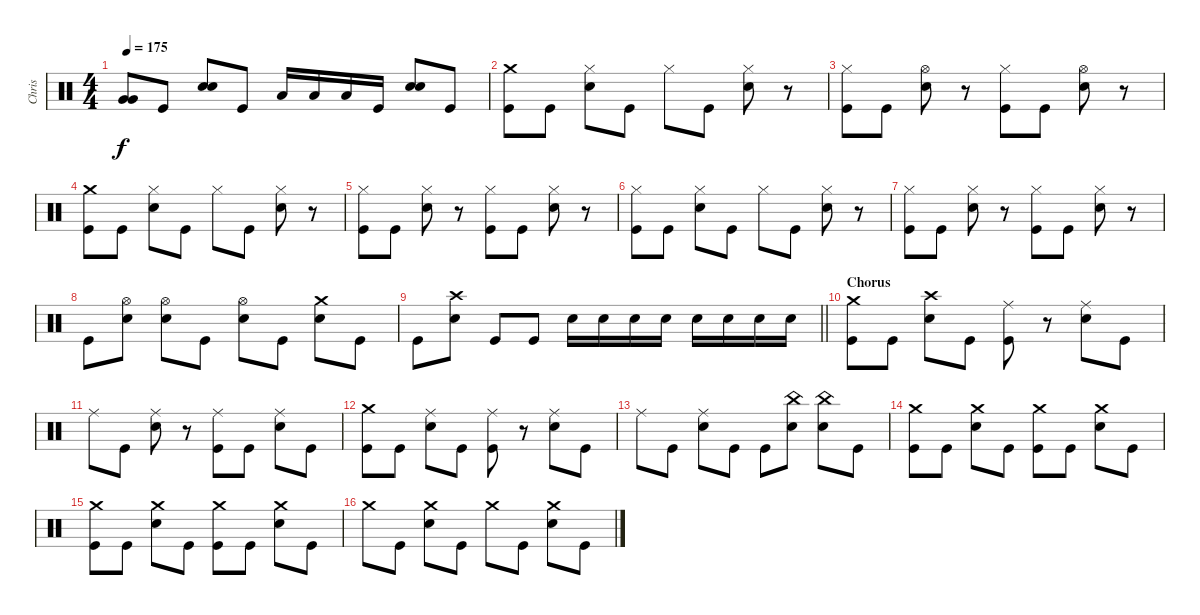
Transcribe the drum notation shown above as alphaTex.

\track ("Chris" "Chris") {instrument percussion}
\staff {score}
\articulation defaults
\ts (4 4)
\tempo 175
\clef neutral
\ks c
("Very Low Tom (hit)" "Very Low Tom (hit)").8{bd 120 dy f} "Kick (hit)".8 ("Snare (hit) 2" "Snare (hit) 2").8{bd 120} "Kick (hit)".8 "Low Floor Tom (hit)".16 "Low Floor Tom (hit)".16 "Low Floor Tom (hit)".16 "Kick (hit)".16 ("Snare (hit) 2" "Snare (hit) 2").8{bd 120} "Kick (hit)".8 |
("Crash medium (hit)" "Kick (hit)").8 "Kick (hit)".8 ("Hi-Hat (closed)" "Snare (hit) 2").8 "Kick (hit)".8 "Hi-Hat (closed)".8 "Kick (hit)".8 ("Hi-Hat (closed)" "Snare (hit) 2").8 r.8 |
("Hi-Hat (closed)" "Kick (hit)").8 "Kick (hit)".8 ("Hi-Hat (open)" "Snare (hit) 2").8 r.8 ("Hi-Hat (closed)" "Kick (hit)").8 "Kick (hit)".8 ("Hi-Hat (open)" "Snare (hit) 2").8 r.8 |
("Crash medium (hit)" "Kick (hit)").8 "Kick (hit)".8 ("Hi-Hat (closed)" "Snare (hit) 2").8 "Kick (hit)".8 "Hi-Hat (closed)".8 "Kick (hit)".8 ("Hi-Hat (closed)" "Snare (hit) 2").8 r.8 |
("Hi-Hat (closed)" "Kick (hit)").8 "Kick (hit)".8 ("Hi-Hat (closed)" "Snare (hit) 2").8 r.8 ("Hi-Hat (closed)" "Kick (hit)").8 "Kick (hit)".8 ("Hi-Hat (closed)" "Snare (hit) 2").8 r.8 |
("Hi-Hat (closed)" "Kick (hit)").8 "Kick (hit)".8 ("Hi-Hat (closed)" "Snare (hit) 2").8 "Kick (hit)".8 "Hi-Hat (closed)".8 "Kick (hit)".8 ("Hi-Hat (closed)" "Snare (hit) 2").8 r.8 |
("Hi-Hat (closed)" "Kick (hit)").8 "Kick (hit)".8 ("Hi-Hat (closed)" "Snare (hit) 2").8 r.8 ("Hi-Hat (closed)" "Kick (hit)").8 "Kick (hit)".8 ("Hi-Hat (closed)" "Snare (hit) 2").8 r.8 |
"Kick (hit)".8 ("Hi-Hat (open)" "Snare (hit) 2").8 ("Hi-Hat (open)" "Snare (hit) 2").8 "Kick (hit)".8 ("Hi-Hat (open)" "Snare (hit) 2").8 "Kick (hit)".8 ("Crash medium (hit)" "Snare (hit) 2").8 "Kick (hit)".8 |
\barLineRight lightlight "Kick (hit)".8
("Crash high (hit)" "Snare (hit) 2").8 "Kick (hit)".8 "Kick (hit)".8 "Snare (hit) 2".16 "Snare (hit) 2".16 "Snare (hit) 2".16 "Snare (hit) 2".16 "Snare (hit) 2".16 "Snare (hit) 2".16 "Snare (hit) 2".16 "Snare (hit) 2".16 |
\section ("" "Chorus")
("Crash medium (hit)" "Kick (hit)").8 "Kick (hit)".8 ("Crash high (hit)" "Snare (hit) 2").8 "Kick (hit)".8 ("Ride (middle)" "Kick (hit)").8 r.8 ("Ride (middle)" "Snare (hit) 2").8 "Kick (hit)".8 |
"Ride (middle)".8 "Kick (hit)".8 ("Ride (middle)" "Snare (hit) 2").8 r.8 ("Ride (middle)" "Kick (hit)").8 "Kick (hit)".8 ("Ride (middle)" "Snare (hit) 2").8 "Kick (hit)".8 |
("Crash medium (hit)" "Kick (hit)").8 "Kick (hit)".8 ("Ride (middle)" "Snare (hit) 2").8 "Kick (hit)".8 ("Ride (middle)" "Kick (hit)").8 r.8 ("Ride (middle)" "Snare (hit) 2").8 "Kick (hit)".8 |
"Ride (middle)".8 "Kick (hit)".8 ("Ride (middle)" "Snare (hit) 2").8 "Kick (hit)".8 "Kick (hit)".8 ("China (hit)" "Snare (hit) 2").8 ("China (hit)" "Snare (hit) 2").8 "Kick (hit)".8 |
("Crash medium (hit)" "Kick (hit)").8 "Kick (hit)".8 ("Crash medium (hit)" "Snare (hit) 2").8 "Kick (hit)".8 ("Crash medium (hit)" "Kick (hit)").8 "Kick (hit)".8 ("Crash medium (hit)" "Snare (hit) 2").8 "Kick (hit)".8 |
("Crash medium (hit)" "Kick (hit)").8 "Kick (hit)".8 ("Crash medium (hit)" "Snare (hit) 2").8 "Kick (hit)".8 ("Crash medium (hit)" "Kick (hit)").8 "Kick (hit)".8 ("Crash medium (hit)" "Snare (hit) 2").8 "Kick (hit)".8 |
"Crash medium (hit)".8 "Kick (hit)".8 ("Crash medium (hit)" "Snare (hit) 2").8 "Kick (hit)".8 "Crash medium (hit)".8 "Kick (hit)".8 ("Crash medium (hit)" "Snare (hit) 2").8 "Kick (hit)".8
